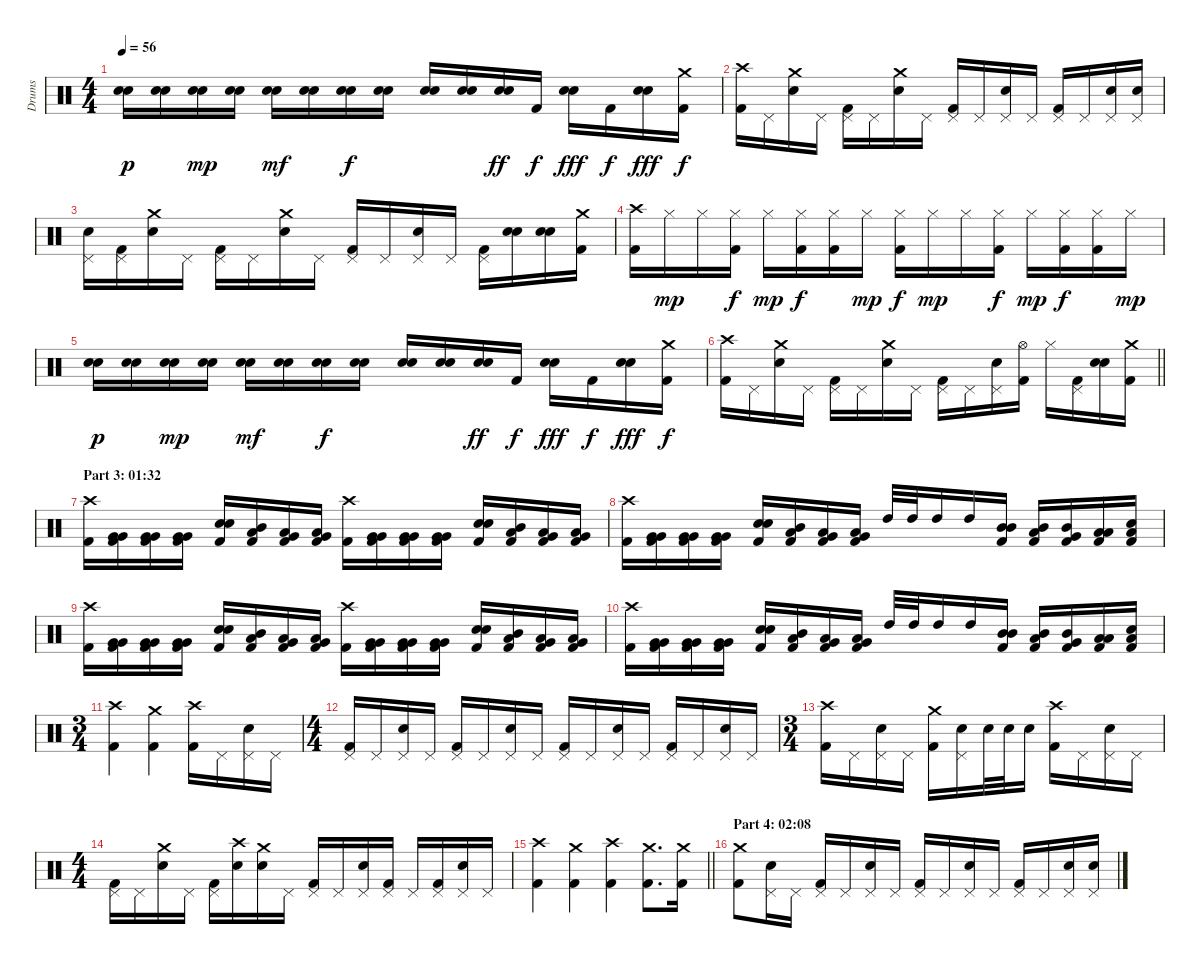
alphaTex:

\track ("Drums" "Drums") {instrument percussion}
\staff {score}
\articulation defaults
\ts (4 4)
\tempo 56
\clef neutral
\ks c
("Electric Snare (hit)" "Electric Snare (hit)").16{dy p} ("Electric Snare (hit)" "Electric Snare (hit)").16 ("Electric Snare (hit)" "Electric Snare (hit)").16{dy mp} ("Electric Snare (hit)" "Electric Snare (hit)").16 ("Electric Snare (hit)" "Electric Snare (hit)").16{dy mf} ("Electric Snare (hit)" "Electric Snare (hit)").16 ("Electric Snare (hit)" "Electric Snare (hit)").16{dy f} ("Electric Snare (hit)" "Electric Snare (hit)").16 ("Electric Snare (hit)" "Electric Snare (hit)").16 ("Electric Snare (hit)" "Electric Snare (hit)").16 ("Electric Snare (hit)" "Electric Snare (hit)").16{dy ff} "Kick (hit) 2".16{dy f} ("Electric Snare (hit)" "Electric Snare (hit)").16{bd 30 dy fff} "Kick (hit) 2".16{dy f} ("Electric Snare (hit)" "Electric Snare (hit)").16{bd 30 dy fff} ("Crash medium (hit)" "Kick (hit) 2").16{dy f} |
("Crash high (hit)" "Kick (hit) 2").16 "Pedal Hi-Hat (hit)".16 ("Crash medium (hit)" "Electric Snare (hit)").16 "Pedal Hi-Hat (hit)".16 ("Pedal Hi-Hat (hit)" "Kick (hit) 2").16 "Pedal Hi-Hat (hit)".16 ("Crash medium (hit)" "Electric Snare (hit)").16 "Pedal Hi-Hat (hit)".16 ("Pedal Hi-Hat (hit)" "Kick (hit) 2").16 "Pedal Hi-Hat (hit)".16 ("Pedal Hi-Hat (hit)" "Electric Snare (hit)").16 "Pedal Hi-Hat (hit)".16 ("Pedal Hi-Hat (hit)" "Kick (hit) 2").16 "Pedal Hi-Hat (hit)".16 ("Pedal Hi-Hat (hit)" "Electric Snare (hit)").16 ("Pedal Hi-Hat (hit)" "Electric Snare (hit)").16 |
("Pedal Hi-Hat (hit)" "Electric Snare (hit)").16 ("Pedal Hi-Hat (hit)" "Kick (hit) 2").16 ("Crash medium (hit)" "Electric Snare (hit)").16 "Pedal Hi-Hat (hit)".16 ("Pedal Hi-Hat (hit)" "Kick (hit) 2").16 "Pedal Hi-Hat (hit)".16 ("Crash medium (hit)" "Electric Snare (hit)").16 "Pedal Hi-Hat (hit)".16 ("Pedal Hi-Hat (hit)" "Kick (hit) 2").16 "Pedal Hi-Hat (hit)".16 ("Pedal Hi-Hat (hit)" "Electric Snare (hit)").16 "Pedal Hi-Hat (hit)".16 ("Pedal Hi-Hat (hit)" "Kick (hit) 2").16 ("Electric Snare (hit)" "Electric Snare (hit)").16{bd 30} ("Electric Snare (hit)" "Electric Snare (hit)").16{bd 30} ("Crash medium (hit)" "Kick (hit) 2").16 |
("Crash high (hit)" "Kick (hit) 2").16 "Hi-Hat (closed)".16{dy mp} "Hi-Hat (closed)".16 ("Hi-Hat (closed)" "Kick (hit) 2").16{dy f} "Hi-Hat (closed)".16{dy mp} ("Hi-Hat (closed)" "Kick (hit) 2").16{dy f} ("Hi-Hat (closed)" "Kick (hit) 2").16 "Hi-Hat (closed)".16{dy mp} ("Hi-Hat (closed)" "Kick (hit) 2").16{dy f} "Hi-Hat (closed)".16{dy mp} "Hi-Hat (closed)".16 ("Hi-Hat (closed)" "Kick (hit) 2").16{dy f} "Hi-Hat (closed)".16{dy mp} ("Hi-Hat (closed)" "Kick (hit) 2").16{dy f} ("Hi-Hat (closed)" "Kick (hit) 2").16 "Hi-Hat (closed)".16{dy mp} |
("Electric Snare (hit)" "Electric Snare (hit)").16{dy p} ("Electric Snare (hit)" "Electric Snare (hit)").16 ("Electric Snare (hit)" "Electric Snare (hit)").16{dy mp} ("Electric Snare (hit)" "Electric Snare (hit)").16 ("Electric Snare (hit)" "Electric Snare (hit)").16{dy mf} ("Electric Snare (hit)" "Electric Snare (hit)").16 ("Electric Snare (hit)" "Electric Snare (hit)").16{dy f} ("Electric Snare (hit)" "Electric Snare (hit)").16 ("Electric Snare (hit)" "Electric Snare (hit)").16 ("Electric Snare (hit)" "Electric Snare (hit)").16 ("Electric Snare (hit)" "Electric Snare (hit)").16{dy ff} "Kick (hit) 2".16{dy f} ("Electric Snare (hit)" "Electric Snare (hit)").16{bd 30 dy fff} "Kick (hit) 2".16{dy f} ("Electric Snare (hit)" "Electric Snare (hit)").16{bd 30 dy fff} ("Crash medium (hit)" "Kick (hit) 2").16{dy f} |
\barLineRight lightlight
("Crash high (hit)" "Kick (hit) 2").16 "Pedal Hi-Hat (hit)".16 ("Crash medium (hit)" "Electric Snare (hit)").16 "Pedal Hi-Hat (hit)".16 ("Pedal Hi-Hat (hit)" "Kick (hit) 2").16 "Pedal Hi-Hat (hit)".16 ("Crash medium (hit)" "Electric Snare (hit)").16 "Pedal Hi-Hat (hit)".16 ("Pedal Hi-Hat (hit)" "Kick (hit) 2").16 "Pedal Hi-Hat (hit)".16 ("Pedal Hi-Hat (hit)" "Electric Snare (hit)").16 ("Hi-Hat (open)" "Kick (hit) 2").16 "Hi-Hat (closed)".16 ("Pedal Hi-Hat (hit)" "Kick (hit) 2").16 ("Electric Snare (hit)" "Electric Snare (hit)").16{bd 30} ("Crash medium (hit)" "Kick (hit) 2").16 |
\section ("" "Part 3: 01:32")
("Crash high (hit)" "Kick (hit) 2").16 ("Very Low Tom (hit)" "Very Low Tom (hit)" "Kick (hit) 2").16 ("Very Low Tom (hit)" "Very Low Tom (hit)" "Kick (hit) 2").16 ("Very Low Tom (hit)" "Very Low Tom (hit)" "Kick (hit) 2").16 ("Electric Snare (hit)" "Electric Snare (hit)" "Kick (hit) 2").16{bd 30} ("Mid Tom (hit)" "Low Tom (hit)" "Kick (hit) 2").16 ("Low Tom (hit)" "Very Low Tom (hit)" "Kick (hit) 2").16 ("Low Tom (hit)" "Very Low Tom (hit)" "Kick (hit) 2").16 ("Crash high (hit)" "Kick (hit) 2").16 ("Very Low Tom (hit)" "Very Low Tom (hit)" "Kick (hit) 2").16 ("Very Low Tom (hit)" "Very Low Tom (hit)" "Kick (hit) 2").16 ("Very Low Tom (hit)" "Very Low Tom (hit)" "Kick (hit) 2").16 ("Electric Snare (hit)" "Electric Snare (hit)" "Kick (hit) 2").16{bd 30} ("Mid Tom (hit)" "Low Tom (hit)" "Kick (hit) 2").16 ("Low Tom (hit)" "Very Low Tom (hit)" "Kick (hit) 2").16 ("Low Tom (hit)" "Very Low Tom (hit)" "Kick (hit) 2").16 |
("Crash high (hit)" "Kick (hit) 2").16 ("Very Low Tom (hit)" "Very Low Tom (hit)" "Kick (hit) 2").16 ("Very Low Tom (hit)" "Very Low Tom (hit)" "Kick (hit) 2").16 ("Very Low Tom (hit)" "Very Low Tom (hit)" "Kick (hit) 2").16 ("Electric Snare (hit)" "Electric Snare (hit)" "Kick (hit) 2").16{bd 30} ("Mid Tom (hit)" "Low Tom (hit)" "Kick (hit) 2").16 ("Low Tom (hit)" "Very Low Tom (hit)" "Kick (hit) 2").16 ("Low Tom (hit)" "Very Low Tom (hit)" "Kick (hit) 2").16 "High Tom (hit)".32 "High Tom (hit)".32 "High Tom (hit)".16 "High Tom (hit)".16 ("Mid Tom (hit)" "Mid Tom (hit)" "Kick (hit) 2").16 ("Low Tom (hit)" "Mid Tom (hit)" "Kick (hit) 2").16 ("Very Low Tom (hit)" "Mid Tom (hit)" "Kick (hit) 2").16 ("Low Floor Tom (hit)" "Low Tom (hit)" "Kick (hit) 2").16 ("Low Floor Tom (hit)" "Electric Snare (hit)" "Kick (hit) 2").16 |
("Crash high (hit)" "Kick (hit) 2").16 ("Very Low Tom (hit)" "Very Low Tom (hit)" "Kick (hit) 2").16 ("Very Low Tom (hit)" "Very Low Tom (hit)" "Kick (hit) 2").16 ("Very Low Tom (hit)" "Very Low Tom (hit)" "Kick (hit) 2").16 ("Electric Snare (hit)" "Electric Snare (hit)" "Kick (hit) 2").16{bd 30} ("Mid Tom (hit)" "Low Tom (hit)" "Kick (hit) 2").16 ("Low Tom (hit)" "Very Low Tom (hit)" "Kick (hit) 2").16 ("Low Tom (hit)" "Very Low Tom (hit)" "Kick (hit) 2").16 ("Crash high (hit)" "Kick (hit) 2").16 ("Very Low Tom (hit)" "Very Low Tom (hit)" "Kick (hit) 2").16 ("Very Low Tom (hit)" "Very Low Tom (hit)" "Kick (hit) 2").16 ("Very Low Tom (hit)" "Very Low Tom (hit)" "Kick (hit) 2").16 ("Electric Snare (hit)" "Electric Snare (hit)" "Kick (hit) 2").16{bd 30} ("Mid Tom (hit)" "Low Tom (hit)" "Kick (hit) 2").16 ("Low Tom (hit)" "Very Low Tom (hit)" "Kick (hit) 2").16 ("Low Tom (hit)" "Very Low Tom (hit)" "Kick (hit) 2").16 |
("Crash high (hit)" "Kick (hit) 2").16 ("Very Low Tom (hit)" "Very Low Tom (hit)" "Kick (hit) 2").16 ("Very Low Tom (hit)" "Very Low Tom (hit)" "Kick (hit) 2").16 ("Very Low Tom (hit)" "Very Low Tom (hit)" "Kick (hit) 2").16 ("Electric Snare (hit)" "Electric Snare (hit)" "Kick (hit) 2").16{bd 30} ("Mid Tom (hit)" "Low Tom (hit)" "Kick (hit) 2").16 ("Low Tom (hit)" "Very Low Tom (hit)" "Kick (hit) 2").16 ("Low Tom (hit)" "Very Low Tom (hit)" "Kick (hit) 2").16 "High Tom (hit)".32 "High Tom (hit)".32 "High Tom (hit)".16 "High Tom (hit)".16 ("Mid Tom (hit)" "Mid Tom (hit)" "Kick (hit) 2").16 ("Low Tom (hit)" "Mid Tom (hit)" "Kick (hit) 2").16 ("Very Low Tom (hit)" "Mid Tom (hit)" "Kick (hit) 2").16 ("Low Floor Tom (hit)" "Low Tom (hit)" "Kick (hit) 2").16 ("Low Floor Tom (hit)" "Electric Snare (hit)" "Kick (hit) 2").16 |
\ts (3 4)
("Crash high (hit)" "Kick (hit) 2").4 ("Crash medium (hit)" "Kick (hit) 2").4 ("Crash high (hit)" "Kick (hit) 2").16 "Pedal Hi-Hat (hit)".16 ("Pedal Hi-Hat (hit)" "Electric Snare (hit)").16 "Pedal Hi-Hat (hit)".16 |
\ts (4 4)
("Pedal Hi-Hat (hit)" "Kick (hit) 2").16 "Pedal Hi-Hat (hit)".16 ("Pedal Hi-Hat (hit)" "Electric Snare (hit)").16 "Pedal Hi-Hat (hit)".16 ("Pedal Hi-Hat (hit)" "Kick (hit) 2").16 "Pedal Hi-Hat (hit)".16 ("Pedal Hi-Hat (hit)" "Electric Snare (hit)").16 "Pedal Hi-Hat (hit)".16 ("Pedal Hi-Hat (hit)" "Kick (hit) 2").16 "Pedal Hi-Hat (hit)".16 ("Pedal Hi-Hat (hit)" "Electric Snare (hit)").16 "Pedal Hi-Hat (hit)".16 ("Pedal Hi-Hat (hit)" "Kick (hit) 2").16 "Pedal Hi-Hat (hit)".16 ("Pedal Hi-Hat (hit)" "Electric Snare (hit)").16 "Pedal Hi-Hat (hit)".16 |
\ts (3 4)
("Crash high (hit)" "Kick (hit) 2").16 "Pedal Hi-Hat (hit)".16 ("Pedal Hi-Hat (hit)" "Electric Snare (hit)").16 "Pedal Hi-Hat (hit)".16 ("Crash medium (hit)" "Kick (hit) 2").16 ("Pedal Hi-Hat (hit)" "Electric Snare (hit)").16 "Electric Snare (hit)".32 "Electric Snare (hit)".32 "Electric Snare (hit)".16 ("Crash high (hit)" "Kick (hit) 2").16 "Pedal Hi-Hat (hit)".16 ("Pedal Hi-Hat (hit)" "Electric Snare (hit)").16 "Pedal Hi-Hat (hit)".16 |
\ts (4 4)
("Pedal Hi-Hat (hit)" "Kick (hit) 2").16 "Pedal Hi-Hat (hit)".16 ("Crash medium (hit)" "Electric Snare (hit)").16 "Pedal Hi-Hat (hit)".16 ("Pedal Hi-Hat (hit)" "Kick (hit) 2").16 ("Crash high (hit)" "Electric Snare (hit)").16 ("Crash medium (hit)" "Electric Snare (hit)").16 "Pedal Hi-Hat (hit)".16 ("Pedal Hi-Hat (hit)" "Kick (hit) 2").16 "Pedal Hi-Hat (hit)".16 ("Pedal Hi-Hat (hit)" "Electric Snare (hit)").16 ("Pedal Hi-Hat (hit)" "Kick (hit) 2").16 "Pedal Hi-Hat (hit)".16 ("Pedal Hi-Hat (hit)" "Kick (hit) 2").16 ("Pedal Hi-Hat (hit)" "Electric Snare (hit)").16 "Pedal Hi-Hat (hit)".16 |
\barLineRight lightlight
("Crash high (hit)" "Kick (hit) 2").4 ("Crash medium (hit)" "Kick (hit) 2").4 ("Crash high (hit)" "Kick (hit) 2").4 ("Crash medium (hit)" "Kick (hit) 2").8{d} ("Crash medium (hit)" "Kick (hit) 2").16 |
\section ("" "Part 4: 02:08")
("Crash medium (hit)" "Kick (hit) 2").8 ("Pedal Hi-Hat (hit)" "Electric Snare (hit)").16 "Pedal Hi-Hat (hit)".16 ("Pedal Hi-Hat (hit)" "Kick (hit) 2").16 "Pedal Hi-Hat (hit)".16 ("Pedal Hi-Hat (hit)" "Electric Snare (hit)").16 "Pedal Hi-Hat (hit)".16 ("Pedal Hi-Hat (hit)" "Kick (hit) 2").16 "Pedal Hi-Hat (hit)".16 ("Pedal Hi-Hat (hit)" "Electric Snare (hit)").16 "Pedal Hi-Hat (hit)".16 ("Pedal Hi-Hat (hit)" "Kick (hit) 2").16 "Pedal Hi-Hat (hit)".16 ("Pedal Hi-Hat (hit)" "Electric Snare (hit)").16 ("Pedal Hi-Hat (hit)" "Electric Snare (hit)").16
